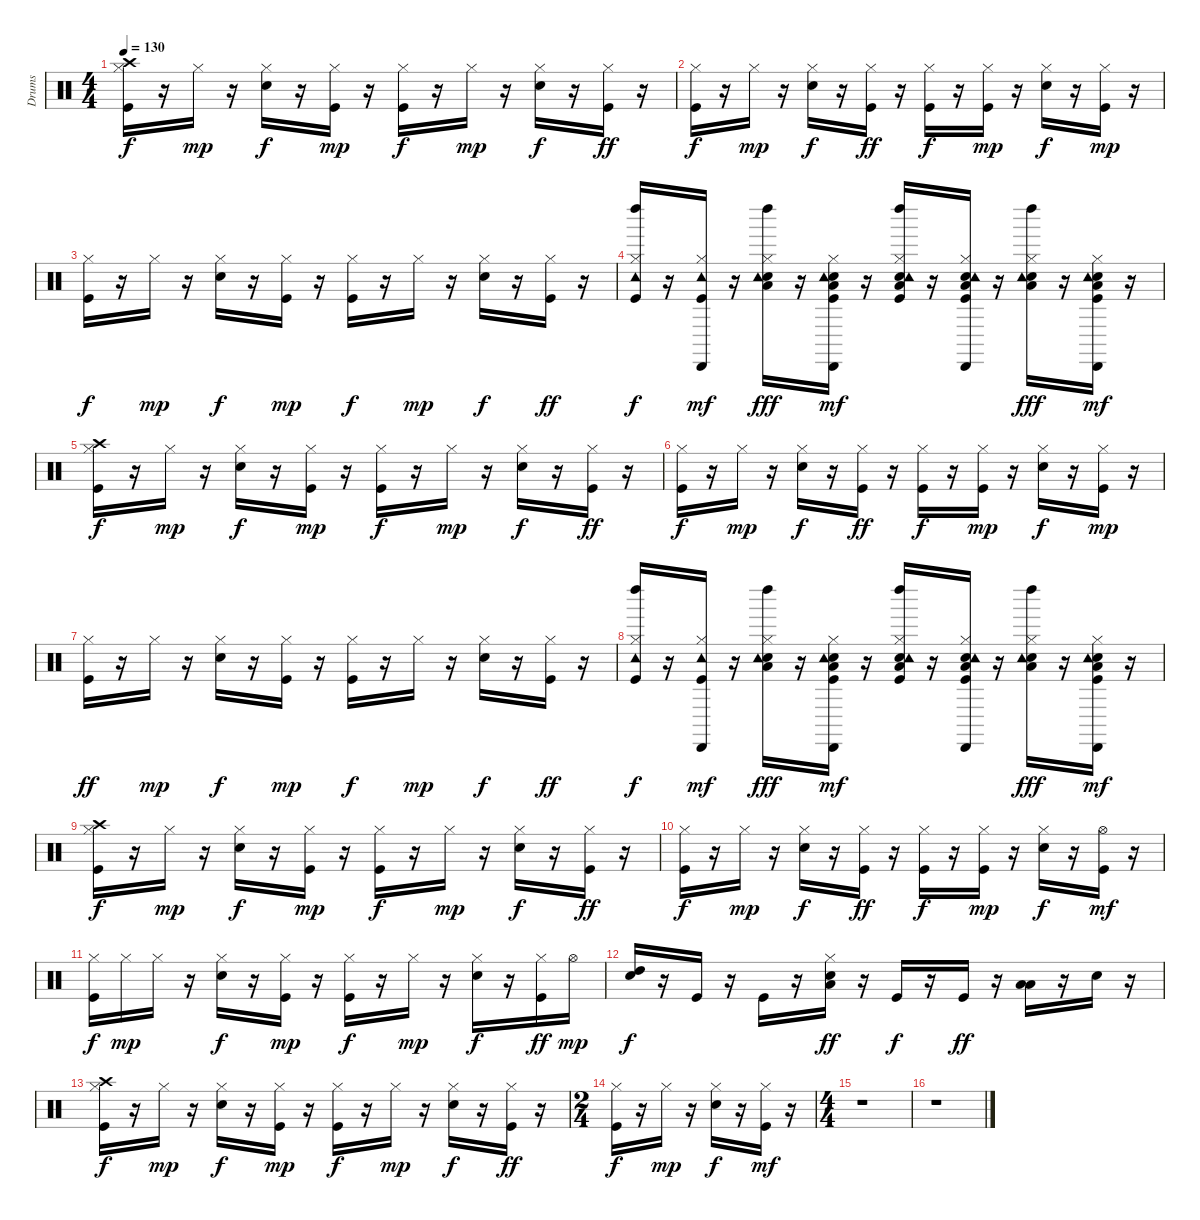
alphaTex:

\track ("Drums" "Drums") {instrument percussion}
\staff {score}
\articulation defaults
\ts (4 4)
\tempo 130
\clef neutral
\ks c
("Kick (hit)" "Hi-Hat (closed)" "Crash high (hit)").16{dy f} r.16 "Hi-Hat (closed)".16{dy mp} r.16 ("Snare (hit) 2" "Hi-Hat (closed)").16{dy f} r.16 ("Kick (hit)" "Hi-Hat (closed)").16{dy mp} r.16 ("Kick (hit)" "Hi-Hat (closed)").16{dy f} r.16 "Hi-Hat (closed)".16{dy mp} r.16 ("Snare (hit) 2" "Hi-Hat (closed)").16{dy f} r.16 ("Kick (hit)" "Hi-Hat (closed)").16{dy ff} r.16 |
("Kick (hit)" "Hi-Hat (closed)").16{dy f} r.16 "Hi-Hat (closed)".16{dy mp} r.16 ("Snare (hit) 2" "Hi-Hat (closed)").16{dy f} r.16 ("Kick (hit)" "Hi-Hat (closed)").16{dy ff} r.16 ("Kick (hit)" "Hi-Hat (closed)").16{dy f} r.16 ("Kick (hit)" "Hi-Hat (closed)").16{dy mp} r.16 ("Snare (hit) 2" "Hi-Hat (closed)").16{dy f} r.16 ("Kick (hit)" "Hi-Hat (closed)").16{dy mp} r.16 |
("Kick (hit)" "Hi-Hat (closed)").16{dy f} r.16 "Hi-Hat (closed)".16{dy mp} r.16 ("Snare (hit) 2" "Hi-Hat (closed)").16{dy f} r.16 ("Kick (hit)" "Hi-Hat (closed)").16{dy mp} r.16 ("Kick (hit)" "Hi-Hat (closed)").16{dy f} r.16 "Hi-Hat (closed)".16{dy mp} r.16 ("Snare (hit) 2" "Hi-Hat (closed)").16{dy f} r.16 ("Kick (hit)" "Hi-Hat (closed)").16{dy ff} r.16 |
("Kick (hit)" "Hi-Hat (closed)" "Tambourine (hit)" "Left Maraca (hit)").16{dy f} r.16 ("Kick (hit)" "Hi-Hat (closed)" "Tambourine (hit)" "Cabasa (hit)").16{dy mf} r.16 ("Snare (hit) 2" "Hi-Hat (closed)" "Low Floor Tom (hit)" "Tambourine (hit)" "Left Maraca (hit)").16{dy fff} r.16 ("Kick (hit)" "Snare (hit) 2" "Hi-Hat (closed)" "Low Floor Tom (hit)" "Tambourine (hit)" "Cabasa (hit)").16{dy mf} r.16 ("Kick (hit)" "Snare (hit) 2" "Hi-Hat (closed)" "Low Floor Tom (hit)" "Tambourine (hit)" "Left Maraca (hit)").16 r.16 ("Kick (hit)" "Snare (hit) 2" "Hi-Hat (closed)" "Low Floor Tom (hit)" "Tambourine (hit)" "Cabasa (hit)").16 r.16 ("Snare (hit) 2" "Hi-Hat (closed)" "Low Floor Tom (hit)" "Tambourine (hit)" "Left Maraca (hit)").16{dy fff} r.16 ("Kick (hit)" "Snare (hit) 2" "Hi-Hat (closed)" "Low Floor Tom (hit)" "Tambourine (hit)" "Cabasa (hit)").16{dy mf} r.16 |
("Kick (hit)" "Hi-Hat (closed)" "Crash high (hit)").16{dy f} r.16 "Hi-Hat (closed)".16{dy mp} r.16 ("Snare (hit) 2" "Hi-Hat (closed)").16{dy f} r.16 ("Kick (hit)" "Hi-Hat (closed)").16{dy mp} r.16 ("Kick (hit)" "Hi-Hat (closed)").16{dy f} r.16 "Hi-Hat (closed)".16{dy mp} r.16 ("Snare (hit) 2" "Hi-Hat (closed)").16{dy f} r.16 ("Kick (hit)" "Hi-Hat (closed)").16{dy ff} r.16 |
("Kick (hit)" "Hi-Hat (closed)").16{dy f} r.16 "Hi-Hat (closed)".16{dy mp} r.16 ("Snare (hit) 2" "Hi-Hat (closed)").16{dy f} r.16 ("Kick (hit)" "Hi-Hat (closed)").16{dy ff} r.16 ("Kick (hit)" "Hi-Hat (closed)").16{dy f} r.16 ("Kick (hit)" "Hi-Hat (closed)").16{dy mp} r.16 ("Snare (hit) 2" "Hi-Hat (closed)").16{dy f} r.16 ("Kick (hit)" "Hi-Hat (closed)").16{dy mp} r.16 |
("Kick (hit)" "Hi-Hat (closed)").16{dy ff} r.16 "Hi-Hat (closed)".16{dy mp} r.16 ("Snare (hit) 2" "Hi-Hat (closed)").16{dy f} r.16 ("Kick (hit)" "Hi-Hat (closed)").16{dy mp} r.16 ("Kick (hit)" "Hi-Hat (closed)").16{dy f} r.16 "Hi-Hat (closed)".16{dy mp} r.16 ("Snare (hit) 2" "Hi-Hat (closed)").16{dy f} r.16 ("Kick (hit)" "Hi-Hat (closed)").16{dy ff} r.16 |
("Kick (hit)" "Hi-Hat (closed)" "Tambourine (hit)" "Left Maraca (hit)").16{dy f} r.16 ("Kick (hit)" "Hi-Hat (closed)" "Tambourine (hit)" "Cabasa (hit)").16{dy mf} r.16 ("Snare (hit) 2" "Hi-Hat (closed)" "Low Floor Tom (hit)" "Tambourine (hit)" "Left Maraca (hit)").16{dy fff} r.16 ("Kick (hit)" "Snare (hit) 2" "Hi-Hat (closed)" "Low Floor Tom (hit)" "Tambourine (hit)" "Cabasa (hit)").16{dy mf} r.16 ("Kick (hit)" "Snare (hit) 2" "Hi-Hat (closed)" "Low Floor Tom (hit)" "Tambourine (hit)" "Left Maraca (hit)").16 r.16 ("Kick (hit)" "Snare (hit) 2" "Hi-Hat (closed)" "Low Floor Tom (hit)" "Tambourine (hit)" "Cabasa (hit)").16 r.16 ("Snare (hit) 2" "Hi-Hat (closed)" "Low Floor Tom (hit)" "Tambourine (hit)" "Left Maraca (hit)").16{dy fff} r.16 ("Kick (hit)" "Snare (hit) 2" "Hi-Hat (closed)" "Low Floor Tom (hit)" "Tambourine (hit)" "Cabasa (hit)").16{dy mf} r.16 |
("Kick (hit)" "Hi-Hat (closed)" "Crash high (hit)").16{dy f} r.16 "Hi-Hat (closed)".16{dy mp} r.16 ("Snare (hit) 2" "Hi-Hat (closed)").16{dy f} r.16 ("Kick (hit)" "Hi-Hat (closed)").16{dy mp} r.16 ("Kick (hit)" "Hi-Hat (closed)").16{dy f} r.16 "Hi-Hat (closed)".16{dy mp} r.16 ("Snare (hit) 2" "Hi-Hat (closed)").16{dy f} r.16 ("Kick (hit)" "Hi-Hat (closed)").16{dy ff} r.16 |
("Kick (hit)" "Hi-Hat (closed)").16{dy f} r.16 "Hi-Hat (closed)".16{dy mp} r.16 ("Snare (hit) 2" "Hi-Hat (closed)").16{dy f} r.16 ("Kick (hit)" "Hi-Hat (closed)").16{dy ff} r.16 ("Kick (hit)" "Hi-Hat (closed)").16{dy f} r.16 ("Kick (hit)" "Hi-Hat (closed)").16{dy mp} r.16 ("Snare (hit) 2" "Hi-Hat (closed)").16{dy f} r.16 ("Kick (hit)" "Hi-Hat (open)").16{dy mf} r.16 |
("Kick (hit)" "Hi-Hat (closed)").16{dy f} "Hi-Hat (closed)".16{dy mp} "Hi-Hat (closed)".16 r.16 ("Snare (hit) 2" "Hi-Hat (closed)").16{dy f} r.16 ("Kick (hit)" "Hi-Hat (closed)").16{dy mp} r.16 ("Kick (hit)" "Hi-Hat (closed)").16{dy f} r.16 "Hi-Hat (closed)".16{dy mp} r.16 ("Snare (hit) 2" "Hi-Hat (closed)").16{dy f} r.16 ("Kick (hit)" "Hi-Hat (closed)").16{dy ff} "Hi-Hat (open)".16{dy mp} |
("Snare (hit) 2" "High Tom (hit)").16{dy f} r.16 "Kick (hit)".16 r.16 "Kick (hit)".16 r.16 ("Snare (hit) 2" "Hi-Hat (closed)" "Low Tom (hit)").16{dy ff} r.16 "Kick (hit)".16{dy f} r.16 "Kick (hit)".16{dy ff} r.16 ("Low Floor Tom (hit)" "Low Tom (hit)").16 r.16 "Snare (hit) 2".16 r.16 |
("Kick (hit)" "Hi-Hat (closed)" "Crash high (hit)").16{dy f} r.16 "Hi-Hat (closed)".16{dy mp} r.16 ("Snare (hit) 2" "Hi-Hat (closed)").16{dy f} r.16 ("Kick (hit)" "Hi-Hat (closed)").16{dy mp} r.16 ("Kick (hit)" "Hi-Hat (closed)").16{dy f} r.16 "Hi-Hat (closed)".16{dy mp} r.16 ("Snare (hit) 2" "Hi-Hat (closed)").16{dy f} r.16 ("Kick (hit)" "Hi-Hat (closed)").16{dy ff} r.16 |
\ts (2 4)
("Kick (hit)" "Hi-Hat (closed)").16{dy f} r.16 "Hi-Hat (closed)".16{dy mp} r.16 ("Snare (hit) 2" "Hi-Hat (closed)").16{dy f} r.16 ("Kick (hit)" "Hi-Hat (closed)").16{dy mf} r.16 |
\ts (4 4)
r.1 |
r.1
